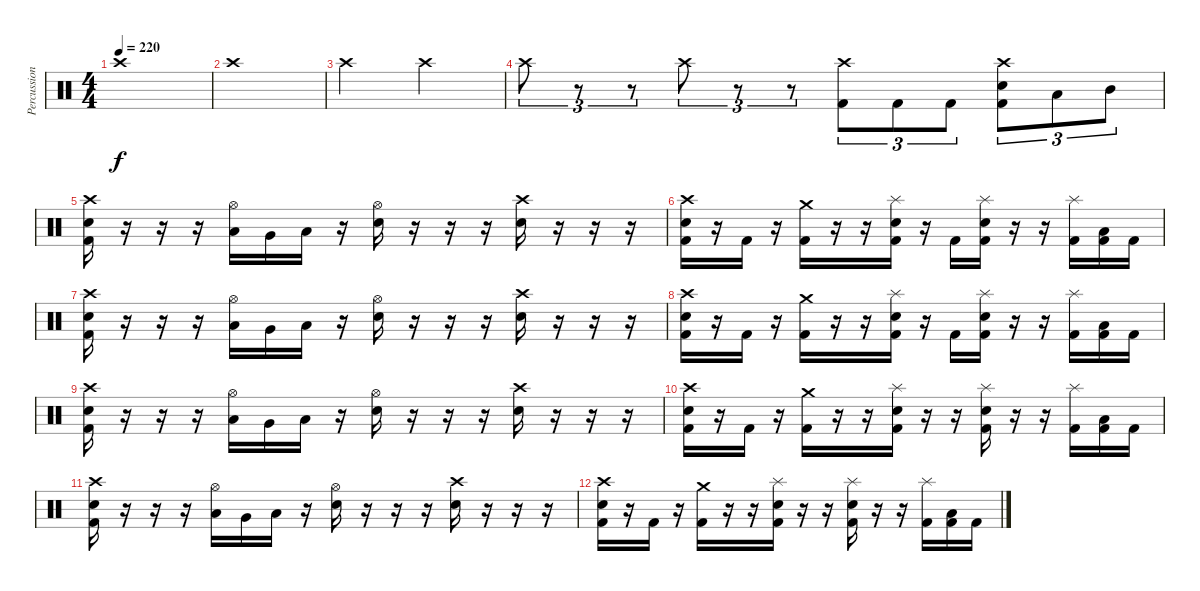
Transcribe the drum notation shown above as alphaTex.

\track ("Percussion" "Percussion") {instrument percussion}
\staff {score}
\articulation defaults
\ts (4 4)
\tempo 220
\clef neutral
\ks c "Crash high (hit)".1{dy f}
|
"Crash high (hit)".1 |
"Crash high (hit)".2 "Crash high (hit)".2 |
"Crash high (hit)".8{tu (3 2)} r.8{tu (3 2)} r.8{tu (3 2)} "Crash high (hit)".8{tu (3 2)} r.8{tu (3 2)} r.8{tu (3 2)} ("Crash high (hit)" "Kick (hit) 2").8{tu (3 2)} "Kick (hit) 2".8{tu (3 2)} "Kick (hit) 2".8{tu (3 2)} ("Crash high (hit)" "Electric Snare (hit)" "Kick (hit) 2").8{tu (3 2)} "Low Tom (hit)".8{tu (3 2)} "Mid Tom (hit)".8{tu (3 2)} |
("Crash high (hit)" "Electric Snare (hit)" "Kick (hit) 2").16 r.16 r.16 r.16 ("Hi-Hat (open)" "Low Tom (hit)").16 "Very Low Tom (hit)".16 "Low Floor Tom (hit)".16 r.16 ("Hi-Hat (open)" "Electric Snare (hit)").16 r.16 r.16 r.16 ("Crash high (hit)" "Electric Snare (hit)").16 r.16 r.16 r.16 |
("Crash high (hit)" "Electric Snare (hit)" "Kick (hit) 2").16 r.16 "Kick (hit) 2".16 r.16 ("Crash medium (hit)" "Kick (hit) 2").16 r.16 r.16 ("Splash (hit)" "Electric Snare (hit)" "Kick (hit) 2").16 r.16 "Kick (hit) 2".16 ("Splash (hit)" "Electric Snare (hit)" "Kick (hit) 2").16 r.16 r.16 ("Splash (hit)" "Kick (hit) 2").16 ("Low Tom (hit)" "Kick (hit) 2").16 "Kick (hit) 2".16 |
("Crash high (hit)" "Electric Snare (hit)" "Kick (hit) 2").16 r.16 r.16 r.16 ("Hi-Hat (open)" "Low Tom (hit)").16 "Very Low Tom (hit)".16 "Low Floor Tom (hit)".16 r.16 ("Hi-Hat (open)" "Electric Snare (hit)").16 r.16 r.16 r.16 ("Crash high (hit)" "Electric Snare (hit)").16 r.16 r.16 r.16 |
("Crash high (hit)" "Electric Snare (hit)" "Kick (hit) 2").16 r.16 "Kick (hit) 2".16 r.16 ("Crash medium (hit)" "Kick (hit) 2").16 r.16 r.16 ("Splash (hit)" "Electric Snare (hit)" "Kick (hit) 2").16 r.16 "Kick (hit) 2".16 ("Splash (hit)" "Electric Snare (hit)" "Kick (hit) 2").16 r.16 r.16 ("Splash (hit)" "Kick (hit) 2").16 ("Low Tom (hit)" "Kick (hit) 2").16 "Kick (hit) 2".16 |
("Crash high (hit)" "Electric Snare (hit)" "Kick (hit) 2").16 r.16 r.16 r.16 ("Hi-Hat (open)" "Low Tom (hit)").16 "Very Low Tom (hit)".16 "Low Floor Tom (hit)".16 r.16 ("Hi-Hat (open)" "Electric Snare (hit)").16 r.16 r.16 r.16 ("Crash high (hit)" "Electric Snare (hit)").16 r.16 r.16 r.16 |
("Crash high (hit)" "Electric Snare (hit)" "Kick (hit) 2").16 r.16 "Kick (hit) 2".16 r.16 ("Crash medium (hit)" "Kick (hit) 2").16 r.16 r.16 ("Splash (hit)" "Electric Snare (hit)" "Kick (hit) 2").16 r.16 r.16 ("Splash (hit)" "Electric Snare (hit)" "Kick (hit) 2").16 r.16 r.16 ("Splash (hit)" "Kick (hit) 2").16 ("Low Tom (hit)" "Kick (hit) 2").16 "Kick (hit) 2".16 |
("Crash high (hit)" "Electric Snare (hit)" "Kick (hit) 2").16 r.16 r.16 r.16 ("Hi-Hat (open)" "Low Tom (hit)").16 "Very Low Tom (hit)".16 "Low Floor Tom (hit)".16 r.16 ("Hi-Hat (open)" "Electric Snare (hit)").16 r.16 r.16 r.16 ("Crash high (hit)" "Electric Snare (hit)").16 r.16 r.16 r.16 |
("Crash high (hit)" "Electric Snare (hit)" "Kick (hit) 2").16 r.16 "Kick (hit) 2".16 r.16 ("Crash medium (hit)" "Kick (hit) 2").16 r.16 r.16 ("Splash (hit)" "Electric Snare (hit)" "Kick (hit) 2").16 r.16 r.16 ("Splash (hit)" "Electric Snare (hit)" "Kick (hit) 2").16 r.16 r.16 ("Splash (hit)" "Kick (hit) 2").16 ("Low Tom (hit)" "Kick (hit) 2").16 "Kick (hit) 2".16
